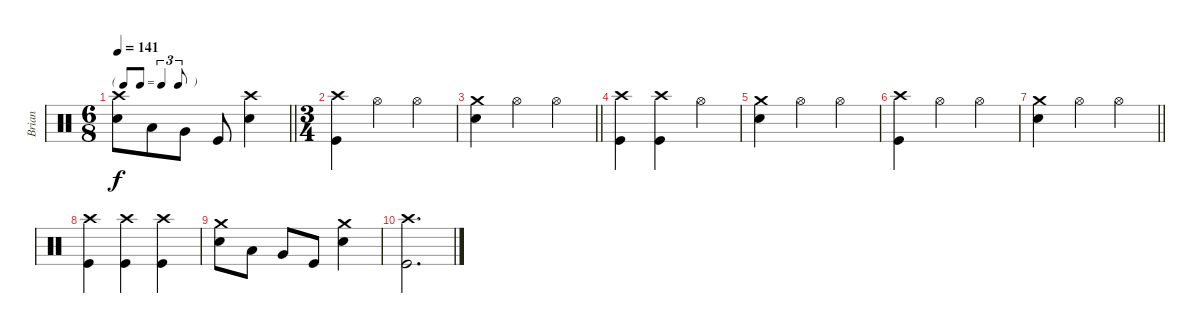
\track ("Brian" "Brian") {instrument percussion}
\staff {score}
\articulation defaults
\ts (6 8)
\tf triplet8th
\tempo 141
\clef neutral
\barLineRight lightlight
\ks c
("Crash high (hit)" "Electric Snare (hit)").8{dy f} "Low Tom (hit)".8 "Very Low Tom (hit)".8 "Kick (hit)".8 ("Crash high (hit)" "Electric Snare (hit)").4 |
\ts (3 4)
("Crash high (hit)" "Kick (hit)").4 "Hi-Hat (open)".4 "Hi-Hat (open)".4 |
\barLineRight lightlight
("Crash medium (hit)" "Electric Snare (hit)").4 "Hi-Hat (open)".4 "Hi-Hat (open)".4 |
("Crash high (hit)" "Kick (hit)").4 ("Crash high (hit)" "Kick (hit)").4 "Hi-Hat (open)".4 |
("Crash medium (hit)" "Electric Snare (hit)").4 "Hi-Hat (open)".4 "Hi-Hat (open)".4 |
("Crash high (hit)" "Kick (hit)").4 "Hi-Hat (open)".4 "Hi-Hat (open)".4 |
\barLineRight lightlight
("Crash medium (hit)" "Electric Snare (hit)").4 "Hi-Hat (open)".4 "Hi-Hat (open)".4 |
("Crash high (hit)" "Kick (hit)").4 ("Crash high (hit)" "Kick (hit)").4 ("Crash high (hit)" "Kick (hit)").4 |
("Crash medium (hit)" "Electric Snare (hit)").8 "Low Tom (hit)".8 "Very Low Tom (hit)".8 "Kick (hit)".8 ("Crash medium (hit)" "Electric Snare (hit)").4 |
("Crash high (hit)" "Kick (hit)").2{d}
